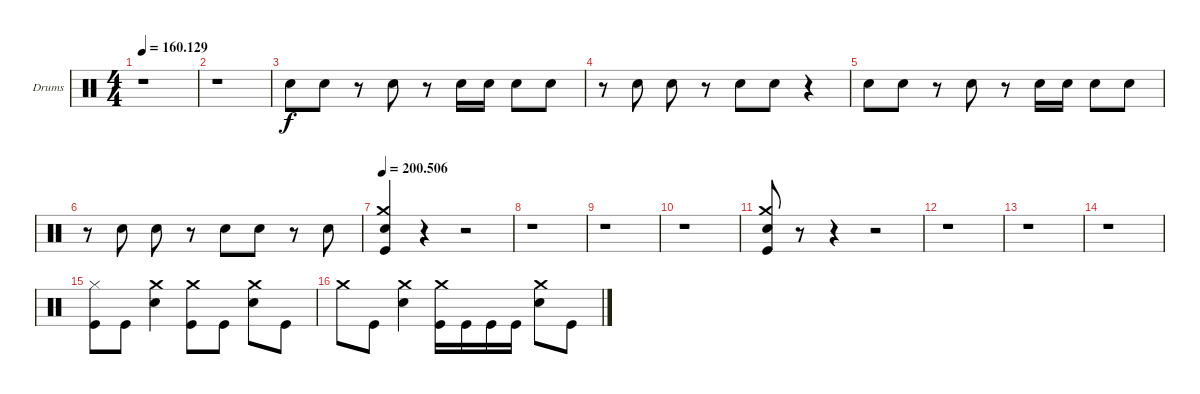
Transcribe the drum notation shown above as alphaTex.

\bracketExtendMode groupsimilarinstruments
\firstSystemTrackNameOrientation horizontal
\otherSystemsTrackNameOrientation horizontal
\track ("Emile Bardou" "Drums") {instrument percussion}
\staff {score}
\articulation defaults
\ts (4 4)
\tempo
160.129
\accidentals auto
\clef neutral
\ottava regular
\simile none
\ks c
r.1{dy f} |
r.1 |
"Snare (hit) 2".8 "Snare (hit) 2".8 r.8 "Snare (hit) 2".8 r.8 "Snare (hit) 2".16 "Snare (hit) 2".16 "Snare (hit) 2".8 "Snare (hit) 2".8 |
r.8 "Snare (hit) 2".8 "Snare (hit) 2".8 r.8 "Snare (hit) 2".8 "Snare (hit) 2".8 r.4 |
"Snare (hit) 2".8 "Snare (hit) 2".8 r.8 "Snare (hit) 2".8 r.8 "Snare (hit) 2".16 "Snare (hit) 2".16 "Snare (hit) 2".8 "Snare (hit) 2".8 |
r.8 "Snare (hit) 2".8 "Snare (hit) 2".8 r.8 "Snare (hit) 2".8 "Snare (hit) 2".8 r.8 "Snare (hit) 2".8 |
\tempo
200.506 ("Crash medium (hit)" "Snare (hit) 2" "Kick (hit)").4 r.4 r.2 |
r.1 |
r.1 |
r.1 |
("Crash medium (hit)" "Snare (hit) 2" "Kick (hit)").8 r.8 r.4 r.2 |
r.1 |
r.1 |
r.1 |
("Kick (hit)" "Hi-Hat (closed)").8 "Kick (hit)".8 ("Crash medium (hit)" "Snare (hit) 2").4 ("Crash medium (hit)" "Kick (hit)").8 "Kick (hit)".8 ("Crash medium (hit)" "Snare (hit) 2").8 "Kick (hit)".8 |
"Crash medium (hit)".8 "Kick (hit)".8 ("Crash medium (hit)" "Snare (hit) 2").4 ("Crash medium (hit)" "Kick (hit)").16 "Kick (hit)".16 "Kick (hit)".16 "Kick (hit)".16 ("Crash medium (hit)" "Snare (hit) 2").8 "Kick (hit)".8
